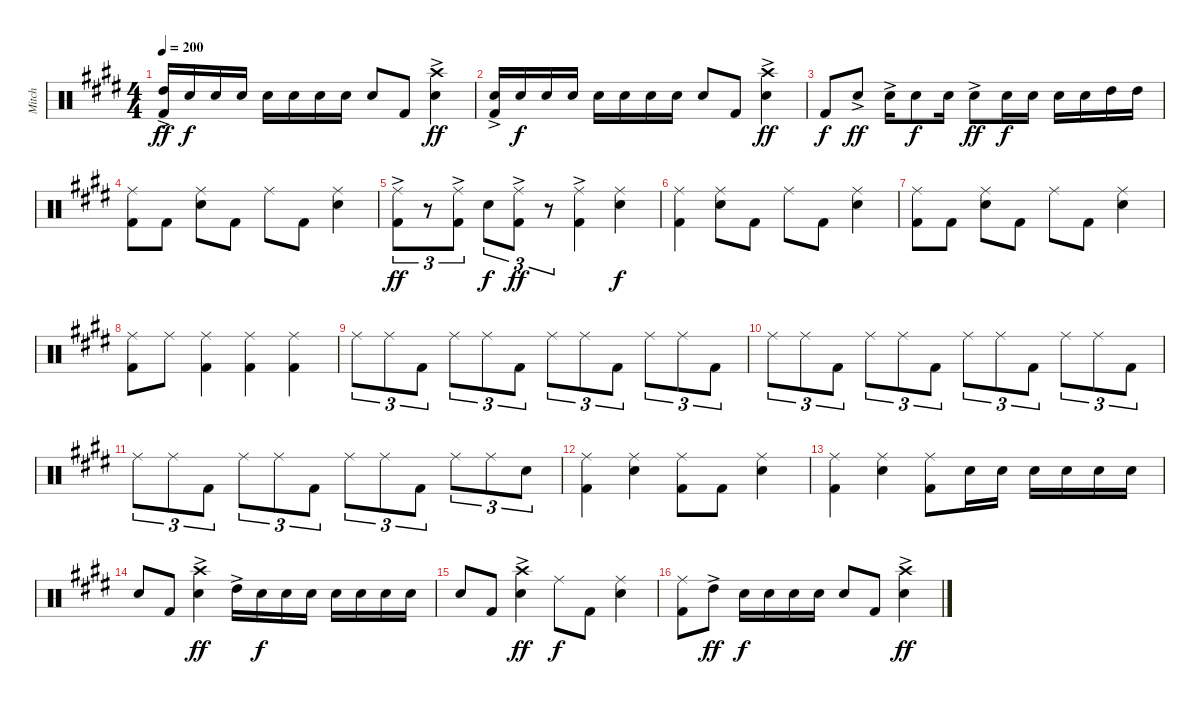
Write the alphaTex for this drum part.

\track ("Mitch" "Mitch") {instrument percussion}
\staff {score}
\articulation defaults
\ts (4 4)
\tempo 200
\clef neutral
\ks e
("High Tom (hit)"{ac} "Kick (hit) 2").16{dy ff} "Snare (hit) 2".16{dy f} "Snare (hit) 2".16 "Snare (hit) 2".16 "Snare (hit) 2".16 "Snare (hit) 2".16 "Snare (hit) 2".16 "Snare (hit) 2".16 "Snare (hit) 2".8 "Kick (hit) 2".8 ("Crash high (hit)"{ac} "Snare (hit) 2").4{dy ff} |
("Snare (hit) 2"{ac} "Kick (hit) 2").16 "Snare (hit) 2".16{dy f} "Snare (hit) 2".16 "Snare (hit) 2".16 "Snare (hit) 2".16 "Snare (hit) 2".16 "Snare (hit) 2".16 "Snare (hit) 2".16 "Snare (hit) 2".8 "Kick (hit) 2".8 ("Crash high (hit)"{ac} "Snare (hit) 2").4{dy ff} |
"Kick (hit) 2".8{dy f} "Snare (hit) 2"{ac}.8{dy ff} "Snare (hit) 2"{ac}.16 "Snare (hit) 2".8{dy f} "Snare (hit) 2".16 "Snare (hit) 2"{ac}.8{dy ff} "Snare (hit) 2".16{dy f} "Snare (hit) 2".16 "Snare (hit) 2".16 "Snare (hit) 2".16 "High Tom (hit)".16 "High Tom (hit)".16 |
("Ride (middle)" "Kick (hit) 2").8 "Kick (hit) 2".8 ("Ride (middle)" "Snare (hit) 2").8 "Kick (hit) 2".8 "Ride (middle)".8 "Kick (hit) 2".8 ("Ride (middle)" "Snare (hit) 2").4 |
("Ride (middle)"{ac} "Kick (hit) 2").8{tu (3 2) dy ff} r.8{tu (3 2)} ("Ride (middle)"{ac} "Kick (hit) 2").8{tu (3 2)} "Snare (hit) 2".8{tu (3 2) dy f} ("Ride (middle)"{ac} "Kick (hit) 2").8{tu (3 2) dy ff} r.8{tu (3 2)} ("Ride (middle)"{ac} "Kick (hit) 2").4 ("Ride (middle)" "Snare (hit) 2").4{dy f} |
("Ride (middle)" "Kick (hit) 2").4 ("Ride (middle)" "Snare (hit) 2").8 "Kick (hit) 2".8 "Ride (middle)".8 "Kick (hit) 2".8 ("Ride (middle)" "Snare (hit) 2").4 |
("Ride (middle)" "Kick (hit) 2").8 "Kick (hit) 2".8 ("Ride (middle)" "Snare (hit) 2").8 "Kick (hit) 2".8 "Ride (middle)".8 "Kick (hit) 2".8 ("Ride (middle)" "Snare (hit) 2").4 |
("Ride (middle)" "Kick (hit) 2").8 "Ride (middle)".8 ("Ride (middle)" "Kick (hit) 2").4 ("Ride (middle)" "Kick (hit) 2").4 ("Ride (middle)" "Kick (hit) 2").4 |
"Ride (middle)".8{tu (3 2)} "Ride (middle)".8{tu (3 2)} "Kick (hit) 2".8{tu (3 2)} "Ride (middle)".8{tu (3 2)} "Ride (middle)".8{tu (3 2)} "Kick (hit) 2".8{tu (3 2)} "Ride (middle)".8{tu (3 2)} "Ride (middle)".8{tu (3 2)} "Kick (hit) 2".8{tu (3 2)} "Ride (middle)".8{tu (3 2)} "Ride (middle)".8{tu (3 2)} "Kick (hit) 2".8{tu (3 2)} |
"Ride (middle)".8{tu (3 2)} "Ride (middle)".8{tu (3 2)} "Kick (hit) 2".8{tu (3 2)} "Ride (middle)".8{tu (3 2)} "Ride (middle)".8{tu (3 2)} "Kick (hit) 2".8{tu (3 2)} "Ride (middle)".8{tu (3 2)} "Ride (middle)".8{tu (3 2)} "Kick (hit) 2".8{tu (3 2)} "Ride (middle)".8{tu (3 2)} "Ride (middle)".8{tu (3 2)} "Kick (hit) 2".8{tu (3 2)} |
"Ride (middle)".8{tu (3 2)} "Ride (middle)".8{tu (3 2)} "Kick (hit) 2".8{tu (3 2)} "Ride (middle)".8{tu (3 2)} "Ride (middle)".8{tu (3 2)} "Kick (hit) 2".8{tu (3 2)} "Ride (middle)".8{tu (3 2)} "Ride (middle)".8{tu (3 2)} "Kick (hit) 2".8{tu (3 2)} "Ride (middle)".8{tu (3 2)} "Ride (middle)".8{tu (3 2)} "Snare (hit) 2".8{tu (3 2)} |
("Ride (middle)" "Kick (hit) 2").4 ("Ride (middle)" "Snare (hit) 2").4 ("Ride (middle)" "Kick (hit) 2").8 "Kick (hit) 2".8 ("Ride (middle)" "Snare (hit) 2").4 |
("Ride (middle)" "Kick (hit) 2").4 ("Ride (middle)" "Snare (hit) 2").4 ("Ride (middle)" "Kick (hit) 2").8 "Snare (hit) 2".16 "Snare (hit) 2".16 "Snare (hit) 2".16 "Snare (hit) 2".16 "Snare (hit) 2".16 "Snare (hit) 2".16 |
"Snare (hit) 2".8 "Kick (hit) 2".8 ("Crash high (hit)"{ac} "Snare (hit) 2").4{dy ff} "High Tom (hit)"{ac}.16 "Snare (hit) 2".16{dy f} "Snare (hit) 2".16 "Snare (hit) 2".16 "Snare (hit) 2".16 "Snare (hit) 2".16 "Snare (hit) 2".16 "Snare (hit) 2".16 |
"Snare (hit) 2".8 "Kick (hit) 2".8 ("Crash high (hit)"{ac} "Snare (hit) 2").4{dy ff} "Ride (middle)".8{dy f} "Kick (hit) 2".8 ("Ride (middle)" "Snare (hit) 2").4 |
("Ride (middle)" "Kick (hit) 2").8 "High Tom (hit)"{ac}.8{dy ff} "Snare (hit) 2".16{dy f} "Snare (hit) 2".16 "Snare (hit) 2".16 "Snare (hit) 2".16 "Snare (hit) 2".8 "Kick (hit) 2".8 ("Crash high (hit)"{ac} "Snare (hit) 2").4{dy ff}
